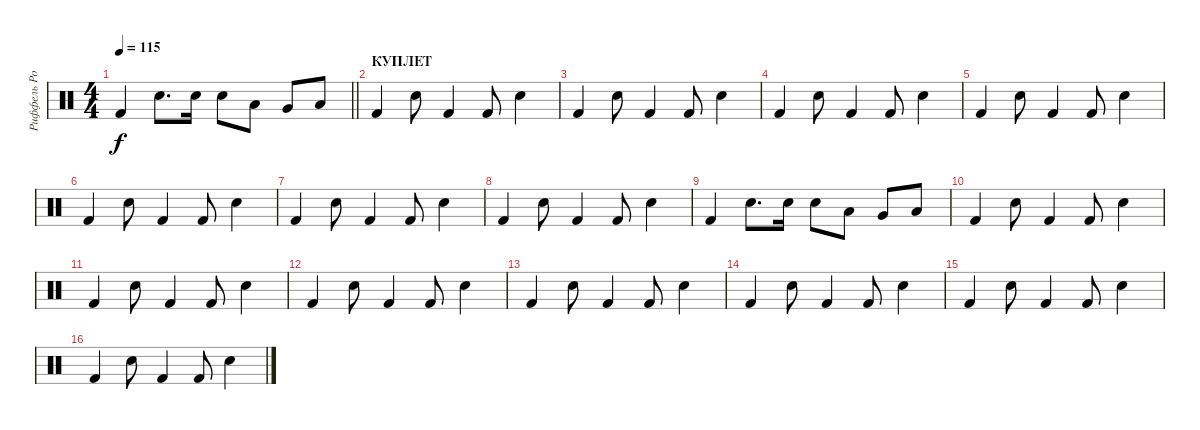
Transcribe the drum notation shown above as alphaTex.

\track ("Риффель Роман(Главные)" "Риффель Ро") {instrument percussion}
\staff {score}
\articulation defaults
\ts (4 4)
\tempo 115
\clef neutral
\barLineRight lightlight
\ks c "Kick (hit) 2".4{dy f} "Electric Snare (hit)".8{d} "Electric Snare (hit)".16 "Electric Snare (hit)".8 "Low Tom (hit)".8 "Very Low Tom (hit)".8 "Low Floor Tom (hit)".8
|
\section ("" "КУПЛЕТ")
"Kick (hit) 2".4 "Electric Snare (hit)".8 "Kick (hit) 2".4 "Kick (hit) 2".8 "Electric Snare (hit)".4 |
"Kick (hit) 2".4 "Electric Snare (hit)".8 "Kick (hit) 2".4 "Kick (hit) 2".8 "Electric Snare (hit)".4 |
"Kick (hit) 2".4 "Electric Snare (hit)".8 "Kick (hit) 2".4 "Kick (hit) 2".8 "Electric Snare (hit)".4 |
"Kick (hit) 2".4 "Electric Snare (hit)".8 "Kick (hit) 2".4 "Kick (hit) 2".8 "Electric Snare (hit)".4 |
"Kick (hit) 2".4 "Electric Snare (hit)".8 "Kick (hit) 2".4 "Kick (hit) 2".8 "Electric Snare (hit)".4 |
"Kick (hit) 2".4 "Electric Snare (hit)".8 "Kick (hit) 2".4 "Kick (hit) 2".8 "Electric Snare (hit)".4 |
"Kick (hit) 2".4 "Electric Snare (hit)".8 "Kick (hit) 2".4 "Kick (hit) 2".8 "Electric Snare (hit)".4 |
"Kick (hit) 2".4 "Electric Snare (hit)".8{d} "Electric Snare (hit)".16 "Electric Snare (hit)".8 "Low Tom (hit)".8 "Very Low Tom (hit)".8 "Low Floor Tom (hit)".8 |
"Kick (hit) 2".4 "Electric Snare (hit)".8 "Kick (hit) 2".4 "Kick (hit) 2".8 "Electric Snare (hit)".4 |
"Kick (hit) 2".4 "Electric Snare (hit)".8 "Kick (hit) 2".4 "Kick (hit) 2".8 "Electric Snare (hit)".4 |
"Kick (hit) 2".4 "Electric Snare (hit)".8 "Kick (hit) 2".4 "Kick (hit) 2".8 "Electric Snare (hit)".4 |
"Kick (hit) 2".4 "Electric Snare (hit)".8 "Kick (hit) 2".4 "Kick (hit) 2".8 "Electric Snare (hit)".4 |
"Kick (hit) 2".4 "Electric Snare (hit)".8 "Kick (hit) 2".4 "Kick (hit) 2".8 "Electric Snare (hit)".4 |
"Kick (hit) 2".4 "Electric Snare (hit)".8 "Kick (hit) 2".4 "Kick (hit) 2".8 "Electric Snare (hit)".4 |
"Kick (hit) 2".4 "Electric Snare (hit)".8 "Kick (hit) 2".4 "Kick (hit) 2".8 "Electric Snare (hit)".4
